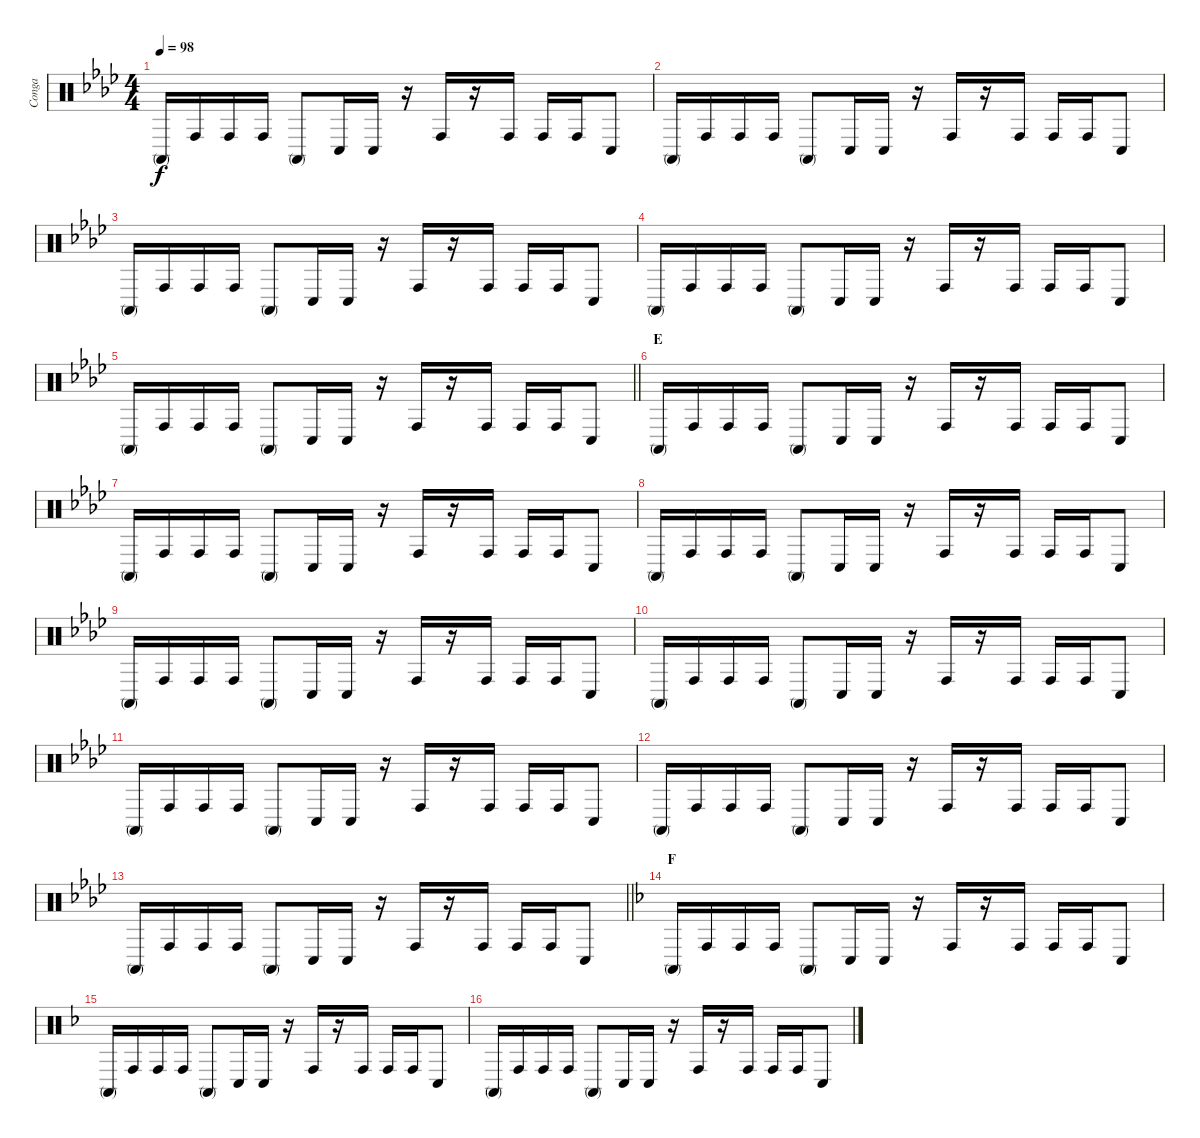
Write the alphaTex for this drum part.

\track ("Conga" "Conga") {instrument percussion}
\staff {score}
\articulation defaults
\ts (4 4)
\tempo 98
\clef neutral
\ks ab "Conga high (mute)".16{dy f} "Conga high (hit)".16 "Conga high (hit)".16 "Conga high (hit)".16 "Conga high (mute)".8 "Conga low (hit)".16 "Conga low (hit)".16
r.16 "Conga high (hit)".16 r.16 "Conga high (hit)".16 "Conga high (hit)".16 "Conga high (hit)".16 "Conga low (hit)".8 |
"Conga high (mute)".16 "Conga high (hit)".16 "Conga high (hit)".16 "Conga high (hit)".16 "Conga high (mute)".8 "Conga low (hit)".16 "Conga low (hit)".16 r.16 "Conga high (hit)".16 r.16 "Conga high (hit)".16 "Conga high (hit)".16 "Conga high (hit)".16 "Conga low (hit)".8 |
"Conga high (mute)".16 "Conga high (hit)".16 "Conga high (hit)".16 "Conga high (hit)".16 "Conga high (mute)".8 "Conga low (hit)".16 "Conga low (hit)".16 r.16 "Conga high (hit)".16 r.16 "Conga high (hit)".16 "Conga high (hit)".16 "Conga high (hit)".16 "Conga low (hit)".8 |
"Conga high (mute)".16 "Conga high (hit)".16 "Conga high (hit)".16 "Conga high (hit)".16 "Conga high (mute)".8 "Conga low (hit)".16 "Conga low (hit)".16 r.16 "Conga high (hit)".16 r.16 "Conga high (hit)".16 "Conga high (hit)".16 "Conga high (hit)".16 "Conga low (hit)".8 |
\barLineRight lightlight "Conga high (mute)".16 "Conga high (hit)".16 "Conga high (hit)".16 "Conga high (hit)".16 "Conga high (mute)".8 "Conga low (hit)".16 "Conga low (hit)".16
r.16 "Conga high (hit)".16 r.16 "Conga high (hit)".16 "Conga high (hit)".16 "Conga high (hit)".16 "Conga low (hit)".8 |
\section ("" "E")
"Conga high (mute)".16 "Conga high (hit)".16 "Conga high (hit)".16 "Conga high (hit)".16 "Conga high (mute)".8 "Conga low (hit)".16 "Conga low (hit)".16 r.16 "Conga high (hit)".16 r.16 "Conga high (hit)".16 "Conga high (hit)".16 "Conga high (hit)".16 "Conga low (hit)".8 |
"Conga high (mute)".16 "Conga high (hit)".16 "Conga high (hit)".16 "Conga high (hit)".16 "Conga high (mute)".8 "Conga low (hit)".16 "Conga low (hit)".16 r.16 "Conga high (hit)".16 r.16 "Conga high (hit)".16 "Conga high (hit)".16 "Conga high (hit)".16 "Conga low (hit)".8 |
"Conga high (mute)".16 "Conga high (hit)".16 "Conga high (hit)".16 "Conga high (hit)".16 "Conga high (mute)".8 "Conga low (hit)".16 "Conga low (hit)".16 r.16 "Conga high (hit)".16 r.16 "Conga high (hit)".16 "Conga high (hit)".16 "Conga high (hit)".16 "Conga low (hit)".8 |
"Conga high (mute)".16 "Conga high (hit)".16 "Conga high (hit)".16 "Conga high (hit)".16 "Conga high (mute)".8 "Conga low (hit)".16 "Conga low (hit)".16 r.16 "Conga high (hit)".16 r.16 "Conga high (hit)".16 "Conga high (hit)".16 "Conga high (hit)".16 "Conga low (hit)".8 |
"Conga high (mute)".16 "Conga high (hit)".16 "Conga high (hit)".16 "Conga high (hit)".16 "Conga high (mute)".8 "Conga low (hit)".16 "Conga low (hit)".16 r.16 "Conga high (hit)".16 r.16 "Conga high (hit)".16 "Conga high (hit)".16 "Conga high (hit)".16 "Conga low (hit)".8 |
"Conga high (mute)".16 "Conga high (hit)".16 "Conga high (hit)".16 "Conga high (hit)".16 "Conga high (mute)".8 "Conga low (hit)".16 "Conga low (hit)".16 r.16 "Conga high (hit)".16 r.16 "Conga high (hit)".16 "Conga high (hit)".16 "Conga high (hit)".16 "Conga low (hit)".8 |
"Conga high (mute)".16 "Conga high (hit)".16 "Conga high (hit)".16 "Conga high (hit)".16 "Conga high (mute)".8 "Conga low (hit)".16 "Conga low (hit)".16 r.16 "Conga high (hit)".16 r.16 "Conga high (hit)".16 "Conga high (hit)".16 "Conga high (hit)".16 "Conga low (hit)".8 |
\barLineRight lightlight "Conga high (mute)".16 "Conga high (hit)".16 "Conga high (hit)".16 "Conga high (hit)".16 "Conga high (mute)".8 "Conga low (hit)".16 "Conga low (hit)".16
r.16 "Conga high (hit)".16 r.16 "Conga high (hit)".16 "Conga high (hit)".16 "Conga high (hit)".16 "Conga low (hit)".8 |
\section ("" "F")
\ks f "Conga high (mute)".16 "Conga high (hit)".16 "Conga high (hit)".16 "Conga high (hit)".16 "Conga high (mute)".8 "Conga low (hit)".16 "Conga low (hit)".16
r.16 "Conga high (hit)".16 r.16 "Conga high (hit)".16 "Conga high (hit)".16 "Conga high (hit)".16 "Conga low (hit)".8 |
"Conga high (mute)".16 "Conga high (hit)".16 "Conga high (hit)".16 "Conga high (hit)".16 "Conga high (mute)".8 "Conga low (hit)".16 "Conga low (hit)".16 r.16 "Conga high (hit)".16 r.16 "Conga high (hit)".16 "Conga high (hit)".16 "Conga high (hit)".16 "Conga low (hit)".8 |
"Conga high (mute)".16 "Conga high (hit)".16 "Conga high (hit)".16 "Conga high (hit)".16 "Conga high (mute)".8 "Conga low (hit)".16 "Conga low (hit)".16 r.16 "Conga high (hit)".16 r.16 "Conga high (hit)".16 "Conga high (hit)".16 "Conga high (hit)".16 "Conga low (hit)".8
